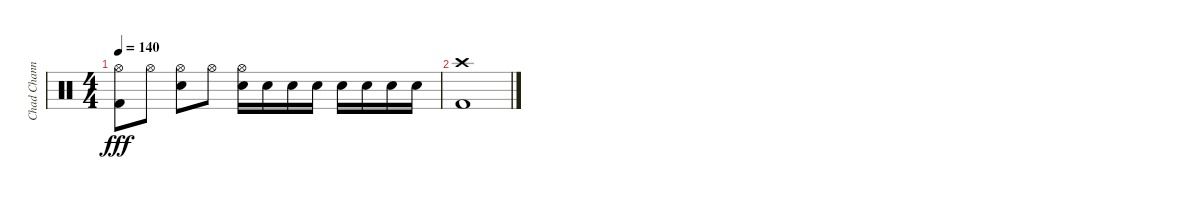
\track ("Chad Channing" "Chad Chann") {instrument percussion}
\staff {score}
\articulation defaults
\ts (4 4)
\tempo 140
\clef neutral
\ks c
("Hi-Hat (open)" "Kick (hit) 2").8{dy fff} "Hi-Hat (open)".8 ("Hi-Hat (open)" "Electric Snare (hit)").8 "Hi-Hat (open)".8 ("Hi-Hat (open)" "Electric Snare (hit)").16 "Electric Snare (hit)".16 "Electric Snare (hit)".16 "Electric Snare (hit)".16 "Electric Snare (hit)".16 "Electric Snare (hit)".16 "Electric Snare (hit)".16 "Electric Snare (hit)".16 |
("Crash high (hit)" "Kick (hit) 2").1
